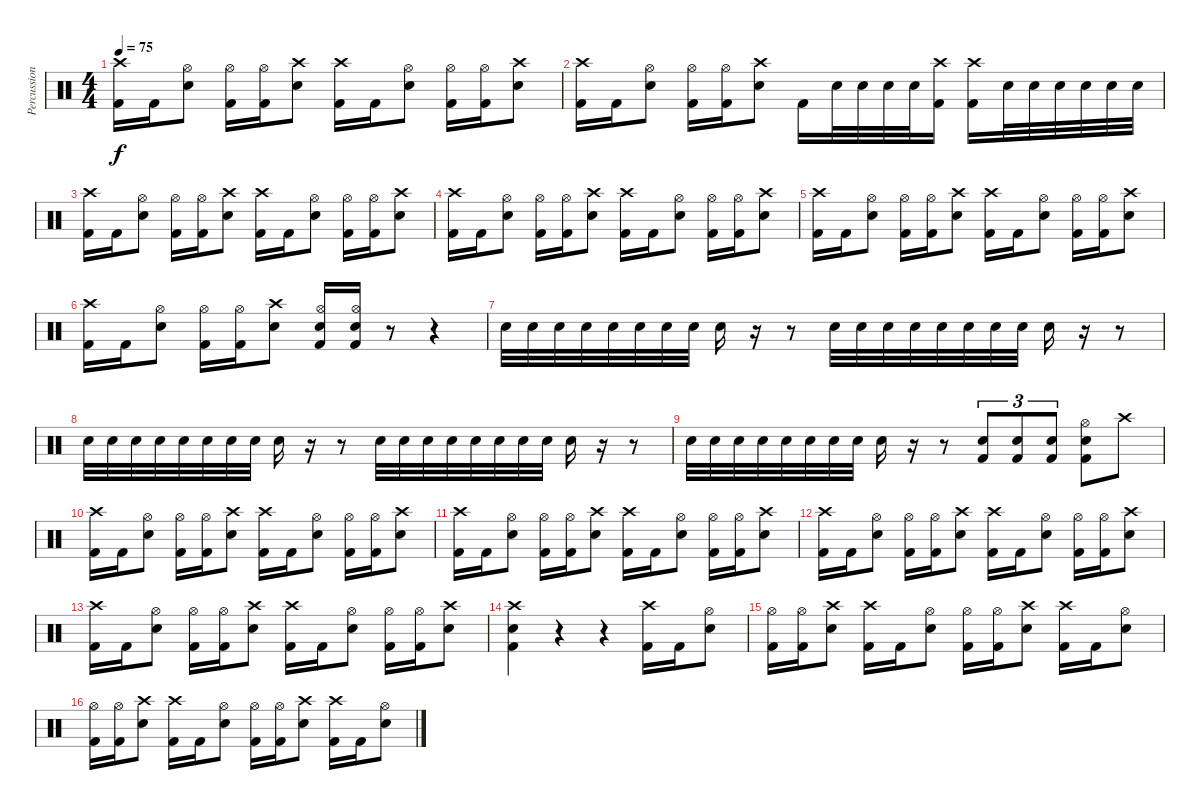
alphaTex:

\track ("Percussion" "Percussion") {instrument percussion}
\staff {score}
\articulation defaults
\ts (4 4)
\tempo 75
\clef neutral
\ks c
("Crash high (hit)" "Kick (hit) 2").16{dy f} "Kick (hit) 2".16 ("Hi-Hat (open)" "Snare (hit) 2").8 ("Hi-Hat (open)" "Kick (hit) 2").16 ("Hi-Hat (open)" "Kick (hit) 2").16 ("Crash high (hit)" "Snare (hit) 2").8 ("Crash high (hit)" "Kick (hit) 2").16 "Kick (hit) 2".16 ("Hi-Hat (open)" "Snare (hit) 2").8 ("Hi-Hat (open)" "Kick (hit) 2").16 ("Hi-Hat (open)" "Kick (hit) 2").16 ("Crash high (hit)" "Snare (hit) 2").8 |
("Crash high (hit)" "Kick (hit) 2").16 "Kick (hit) 2".16 ("Hi-Hat (open)" "Snare (hit) 2").8 ("Hi-Hat (open)" "Kick (hit) 2").16 ("Hi-Hat (open)" "Kick (hit) 2").16 ("Crash high (hit)" "Snare (hit) 2").8 "Kick (hit) 2".16 "Snare (hit) 2".32 "Snare (hit) 2".32 "Snare (hit) 2".32 "Snare (hit) 2".32 ("Crash high (hit)" "Kick (hit) 2").16 ("Crash high (hit)" "Kick (hit) 2").16 "Snare (hit) 2".32 "Snare (hit) 2".32 "Snare (hit) 2".32 "Snare (hit) 2".32 "Snare (hit) 2".32 "Snare (hit)".32 |
("Crash high (hit)" "Kick (hit) 2").16 "Kick (hit) 2".16 ("Hi-Hat (open)" "Snare (hit) 2").8 ("Hi-Hat (open)" "Kick (hit) 2").16 ("Hi-Hat (open)" "Kick (hit) 2").16 ("Crash high (hit)" "Snare (hit) 2").8 ("Crash high (hit)" "Kick (hit) 2").16 "Kick (hit) 2".16 ("Hi-Hat (open)" "Snare (hit) 2").8 ("Hi-Hat (open)" "Kick (hit) 2").16 ("Hi-Hat (open)" "Kick (hit) 2").16 ("Crash high (hit)" "Snare (hit) 2").8 |
("Crash high (hit)" "Kick (hit) 2").16 "Kick (hit) 2".16 ("Hi-Hat (open)" "Snare (hit) 2").8 ("Hi-Hat (open)" "Kick (hit) 2").16 ("Hi-Hat (open)" "Kick (hit) 2").16 ("Crash high (hit)" "Snare (hit) 2").8 ("Crash high (hit)" "Kick (hit) 2").16 "Kick (hit) 2".16 ("Hi-Hat (open)" "Snare (hit) 2").8 ("Hi-Hat (open)" "Kick (hit) 2").16 ("Hi-Hat (open)" "Kick (hit) 2").16 ("Crash high (hit)" "Snare (hit) 2").8 |
("Crash high (hit)" "Kick (hit) 2").16 "Kick (hit) 2".16 ("Hi-Hat (open)" "Snare (hit) 2").8 ("Hi-Hat (open)" "Kick (hit) 2").16 ("Hi-Hat (open)" "Kick (hit) 2").16 ("Crash high (hit)" "Snare (hit) 2").8 ("Crash high (hit)" "Kick (hit) 2").16 "Kick (hit) 2".16 ("Hi-Hat (open)" "Snare (hit) 2").8 ("Hi-Hat (open)" "Kick (hit) 2").16 ("Hi-Hat (open)" "Kick (hit) 2").16 ("Crash high (hit)" "Snare (hit) 2").8 |
("Crash high (hit)" "Kick (hit) 2").16 "Kick (hit) 2".16 ("Hi-Hat (open)" "Snare (hit) 2").8 ("Hi-Hat (open)" "Kick (hit) 2").16 ("Hi-Hat (open)" "Kick (hit) 2").16 ("Crash high (hit)" "Snare (hit) 2").8 ("Hi-Hat (open)" "Snare (hit) 2" "Kick (hit) 2").16 ("Hi-Hat (open)" "Snare (hit) 2" "Kick (hit) 2").16 r.8 r.4 |
"Snare (hit) 2".32 "Snare (hit) 2".32 "Snare (hit) 2".32 "Snare (hit) 2".32 "Snare (hit) 2".32 "Snare (hit) 2".32 "Snare (hit) 2".32 "Snare (hit) 2".32 "Snare (hit) 2".16 r.16 r.8 "Snare (hit) 2".32 "Snare (hit) 2".32 "Snare (hit) 2".32 "Snare (hit) 2".32 "Snare (hit) 2".32 "Snare (hit) 2".32 "Snare (hit) 2".32 "Snare (hit) 2".32 "Snare (hit) 2".16 r.16 r.8 |
"Snare (hit) 2".32 "Snare (hit) 2".32 "Snare (hit) 2".32 "Snare (hit) 2".32 "Snare (hit) 2".32 "Snare (hit) 2".32 "Snare (hit) 2".32 "Snare (hit) 2".32 "Snare (hit) 2".16 r.16 r.8 "Snare (hit) 2".32 "Snare (hit) 2".32 "Snare (hit) 2".32 "Snare (hit) 2".32 "Snare (hit) 2".32 "Snare (hit) 2".32 "Snare (hit) 2".32 "Snare (hit) 2".32 "Snare (hit) 2".16 r.16 r.8 |
"Snare (hit) 2".32 "Snare (hit) 2".32 "Snare (hit) 2".32 "Snare (hit) 2".32 "Snare (hit) 2".32 "Snare (hit) 2".32 "Snare (hit) 2".32 "Snare (hit) 2".32 "Snare (hit) 2".16 r.16 r.8 ("Snare (hit) 2" "Kick (hit) 2").8{tu (3 2)} ("Snare (hit) 2" "Kick (hit) 2").8{tu (3 2)} ("Snare (hit) 2" "Kick (hit) 2").8{tu (3 2)} ("Hi-Hat (open)" "Snare (hit) 2" "Kick (hit) 2").8 "Crash high (hit)".8 |
("Crash high (hit)" "Kick (hit) 2").16 "Kick (hit) 2".16 ("Hi-Hat (open)" "Snare (hit) 2").8 ("Hi-Hat (open)" "Kick (hit) 2").16 ("Hi-Hat (open)" "Kick (hit) 2").16 ("Crash high (hit)" "Snare (hit) 2").8 ("Crash high (hit)" "Kick (hit) 2").16 "Kick (hit) 2".16 ("Hi-Hat (open)" "Snare (hit) 2").8 ("Hi-Hat (open)" "Kick (hit) 2").16 ("Hi-Hat (open)" "Kick (hit) 2").16 ("Crash high (hit)" "Snare (hit) 2").8 |
("Crash high (hit)" "Kick (hit) 2").16 "Kick (hit) 2".16 ("Hi-Hat (open)" "Snare (hit) 2").8 ("Hi-Hat (open)" "Kick (hit) 2").16 ("Hi-Hat (open)" "Kick (hit) 2").16 ("Crash high (hit)" "Snare (hit) 2").8 ("Crash high (hit)" "Kick (hit) 2").16 "Kick (hit) 2".16 ("Hi-Hat (open)" "Snare (hit) 2").8 ("Hi-Hat (open)" "Kick (hit) 2").16 ("Hi-Hat (open)" "Kick (hit) 2").16 ("Crash high (hit)" "Snare (hit) 2").8 |
("Crash high (hit)" "Kick (hit) 2").16 "Kick (hit) 2".16 ("Hi-Hat (open)" "Snare (hit) 2").8 ("Hi-Hat (open)" "Kick (hit) 2").16 ("Hi-Hat (open)" "Kick (hit) 2").16 ("Crash high (hit)" "Snare (hit) 2").8 ("Crash high (hit)" "Kick (hit) 2").16 "Kick (hit) 2".16 ("Hi-Hat (open)" "Snare (hit) 2").8 ("Hi-Hat (open)" "Kick (hit) 2").16 ("Hi-Hat (open)" "Kick (hit) 2").16 ("Crash high (hit)" "Snare (hit) 2").8 |
("Crash high (hit)" "Kick (hit) 2").16 "Kick (hit) 2".16 ("Hi-Hat (open)" "Snare (hit) 2").8 ("Hi-Hat (open)" "Kick (hit) 2").16 ("Hi-Hat (open)" "Kick (hit) 2").16 ("Crash high (hit)" "Snare (hit) 2").8 ("Crash high (hit)" "Kick (hit) 2").16 "Kick (hit) 2".16 ("Hi-Hat (open)" "Snare (hit) 2").8 ("Hi-Hat (open)" "Kick (hit) 2").16 ("Hi-Hat (open)" "Kick (hit) 2").16 ("Crash high (hit)" "Snare (hit) 2").8 |
("Crash high (hit)" "Snare (hit) 2" "Kick (hit) 2").4 r.4 r.4 ("Crash high (hit)" "Kick (hit) 2").16 "Kick (hit) 2".16 ("Hi-Hat (open)" "Snare (hit) 2").8 |
("Hi-Hat (open)" "Kick (hit) 2").16 ("Hi-Hat (open)" "Kick (hit) 2").16 ("Crash high (hit)" "Snare (hit) 2").8 ("Crash high (hit)" "Kick (hit) 2").16 "Kick (hit) 2".16 ("Hi-Hat (open)" "Snare (hit) 2").8 ("Hi-Hat (open)" "Kick (hit) 2").16 ("Hi-Hat (open)" "Kick (hit) 2").16 ("Crash high (hit)" "Snare (hit) 2").8 ("Crash high (hit)" "Kick (hit) 2").16 "Kick (hit) 2".16 ("Hi-Hat (open)" "Snare (hit) 2").8 |
("Hi-Hat (open)" "Kick (hit) 2").16 ("Hi-Hat (open)" "Kick (hit) 2").16 ("Crash high (hit)" "Snare (hit) 2").8 ("Crash high (hit)" "Kick (hit) 2").16 "Kick (hit) 2".16 ("Hi-Hat (open)" "Snare (hit) 2").8 ("Hi-Hat (open)" "Kick (hit) 2").16 ("Hi-Hat (open)" "Kick (hit) 2").16 ("Crash high (hit)" "Snare (hit) 2").8 ("Crash high (hit)" "Kick (hit) 2").16 "Kick (hit) 2".16 ("Hi-Hat (open)" "Snare (hit) 2").8
